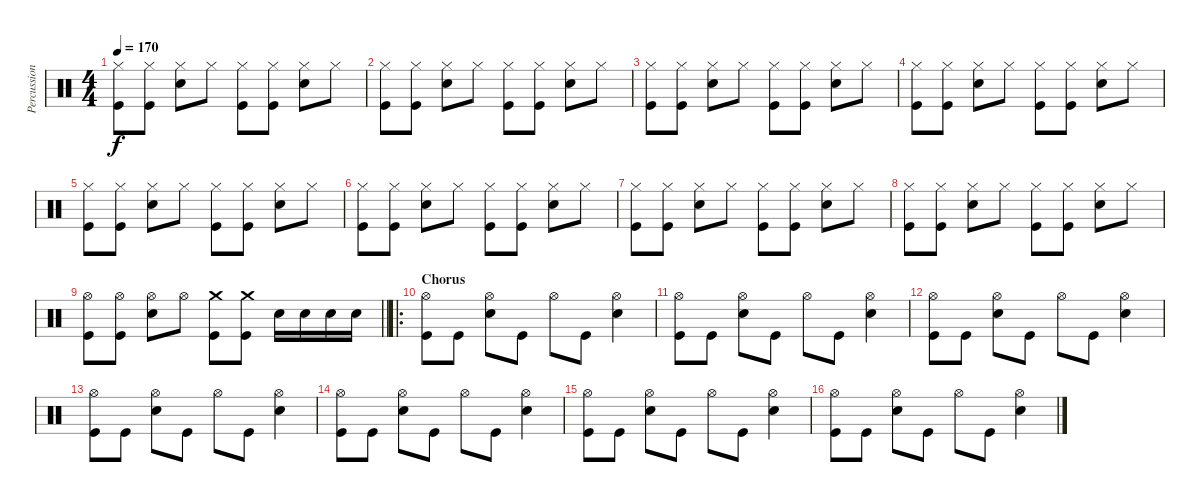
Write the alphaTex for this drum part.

\track ("Percussion" "Percussion") {instrument percussion}
\staff {score}
\articulation defaults
\ts (4 4)
\tempo 170
\clef neutral
\ks c
("Hi-Hat (closed)" "Kick (hit)").8{dy f} ("Hi-Hat (closed)" "Kick (hit)").8 ("Hi-Hat (closed)" "Snare (hit) 2").8 "Hi-Hat (closed)".8 ("Hi-Hat (closed)" "Kick (hit)").8 ("Hi-Hat (closed)" "Kick (hit)").8 ("Hi-Hat (closed)" "Snare (hit) 2").8 "Hi-Hat (closed)".8 |
("Hi-Hat (closed)" "Kick (hit)").8 ("Hi-Hat (closed)" "Kick (hit)").8 ("Hi-Hat (closed)" "Snare (hit) 2").8 "Hi-Hat (closed)".8 ("Hi-Hat (closed)" "Kick (hit)").8 ("Hi-Hat (closed)" "Kick (hit)").8 ("Hi-Hat (closed)" "Snare (hit) 2").8 "Hi-Hat (closed)".8 |
("Hi-Hat (closed)" "Kick (hit)").8 ("Hi-Hat (closed)" "Kick (hit)").8 ("Hi-Hat (closed)" "Snare (hit) 2").8 "Hi-Hat (closed)".8 ("Hi-Hat (closed)" "Kick (hit)").8 ("Hi-Hat (closed)" "Kick (hit)").8 ("Hi-Hat (closed)" "Snare (hit) 2").8 "Hi-Hat (closed)".8 |
("Hi-Hat (closed)" "Kick (hit)").8 ("Hi-Hat (closed)" "Kick (hit)").8 ("Hi-Hat (closed)" "Snare (hit) 2").8 "Hi-Hat (closed)".8 ("Hi-Hat (closed)" "Kick (hit)").8 ("Hi-Hat (closed)" "Kick (hit)").8 ("Hi-Hat (closed)" "Snare (hit) 2").8 "Hi-Hat (closed)".8 |
("Hi-Hat (closed)" "Kick (hit)").8 ("Hi-Hat (closed)" "Kick (hit)").8 ("Hi-Hat (closed)" "Snare (hit) 2").8 "Hi-Hat (closed)".8 ("Hi-Hat (closed)" "Kick (hit)").8 ("Hi-Hat (closed)" "Kick (hit)").8 ("Hi-Hat (closed)" "Snare (hit) 2").8 "Hi-Hat (closed)".8 |
("Hi-Hat (closed)" "Kick (hit)").8 ("Hi-Hat (closed)" "Kick (hit)").8 ("Hi-Hat (closed)" "Snare (hit) 2").8 "Hi-Hat (closed)".8 ("Hi-Hat (closed)" "Kick (hit)").8 ("Hi-Hat (closed)" "Kick (hit)").8 ("Hi-Hat (closed)" "Snare (hit) 2").8 "Hi-Hat (closed)".8 |
("Hi-Hat (closed)" "Kick (hit)").8 ("Hi-Hat (closed)" "Kick (hit)").8 ("Hi-Hat (closed)" "Snare (hit) 2").8 "Hi-Hat (closed)".8 ("Hi-Hat (closed)" "Kick (hit)").8 ("Hi-Hat (closed)" "Kick (hit)").8 ("Hi-Hat (closed)" "Snare (hit) 2").8 "Hi-Hat (closed)".8 |
("Hi-Hat (closed)" "Kick (hit)").8 ("Hi-Hat (closed)" "Kick (hit)").8 ("Hi-Hat (closed)" "Snare (hit) 2").8 "Hi-Hat (closed)".8 ("Hi-Hat (closed)" "Kick (hit)").8 ("Hi-Hat (closed)" "Kick (hit)").8 ("Hi-Hat (closed)" "Snare (hit) 2").8 "Hi-Hat (closed)".8 |
\barLineRight lightlight
("Hi-Hat (open)" "Kick (hit)").8 ("Hi-Hat (open)" "Kick (hit)").8 ("Hi-Hat (open)" "Snare (hit) 2").8 "Hi-Hat (open)".8 ("Crash medium (hit)" "Kick (hit)").8 ("Crash medium (hit)" "Kick (hit)").8 "Snare (hit) 2".16 "Snare (hit) 2".16 "Snare (hit) 2".16 "Snare (hit) 2".16 |
\ro
\section ("" "Chorus")
("Hi-Hat (open)" "Kick (hit)").8 "Kick (hit)".8 ("Hi-Hat (open)" "Snare (hit) 2").8 "Kick (hit)".8 "Hi-Hat (open)".8 "Kick (hit)".8 ("Hi-Hat (open)" "Snare (hit) 2").4 |
("Hi-Hat (open)" "Kick (hit)").8 "Kick (hit)".8 ("Hi-Hat (open)" "Snare (hit) 2").8 "Kick (hit)".8 "Hi-Hat (open)".8 "Kick (hit)".8 ("Hi-Hat (open)" "Snare (hit) 2").4 |
("Hi-Hat (open)" "Kick (hit)").8 "Kick (hit)".8 ("Hi-Hat (open)" "Snare (hit) 2").8 "Kick (hit)".8 "Hi-Hat (open)".8 "Kick (hit)".8 ("Hi-Hat (open)" "Snare (hit) 2").4 |
("Hi-Hat (open)" "Kick (hit)").8 "Kick (hit)".8 ("Hi-Hat (open)" "Snare (hit) 2").8 "Kick (hit)".8 "Hi-Hat (open)".8 "Kick (hit)".8 ("Hi-Hat (open)" "Snare (hit) 2").4 |
("Hi-Hat (open)" "Kick (hit)").8 "Kick (hit)".8 ("Hi-Hat (open)" "Snare (hit) 2").8 "Kick (hit)".8 "Hi-Hat (open)".8 "Kick (hit)".8 ("Hi-Hat (open)" "Snare (hit) 2").4 |
("Hi-Hat (open)" "Kick (hit)").8 "Kick (hit)".8 ("Hi-Hat (open)" "Snare (hit) 2").8 "Kick (hit)".8 "Hi-Hat (open)".8 "Kick (hit)".8 ("Hi-Hat (open)" "Snare (hit) 2").4 |
("Hi-Hat (open)" "Kick (hit)").8 "Kick (hit)".8 ("Hi-Hat (open)" "Snare (hit) 2").8 "Kick (hit)".8 "Hi-Hat (open)".8 "Kick (hit)".8 ("Hi-Hat (open)" "Snare (hit) 2").4
